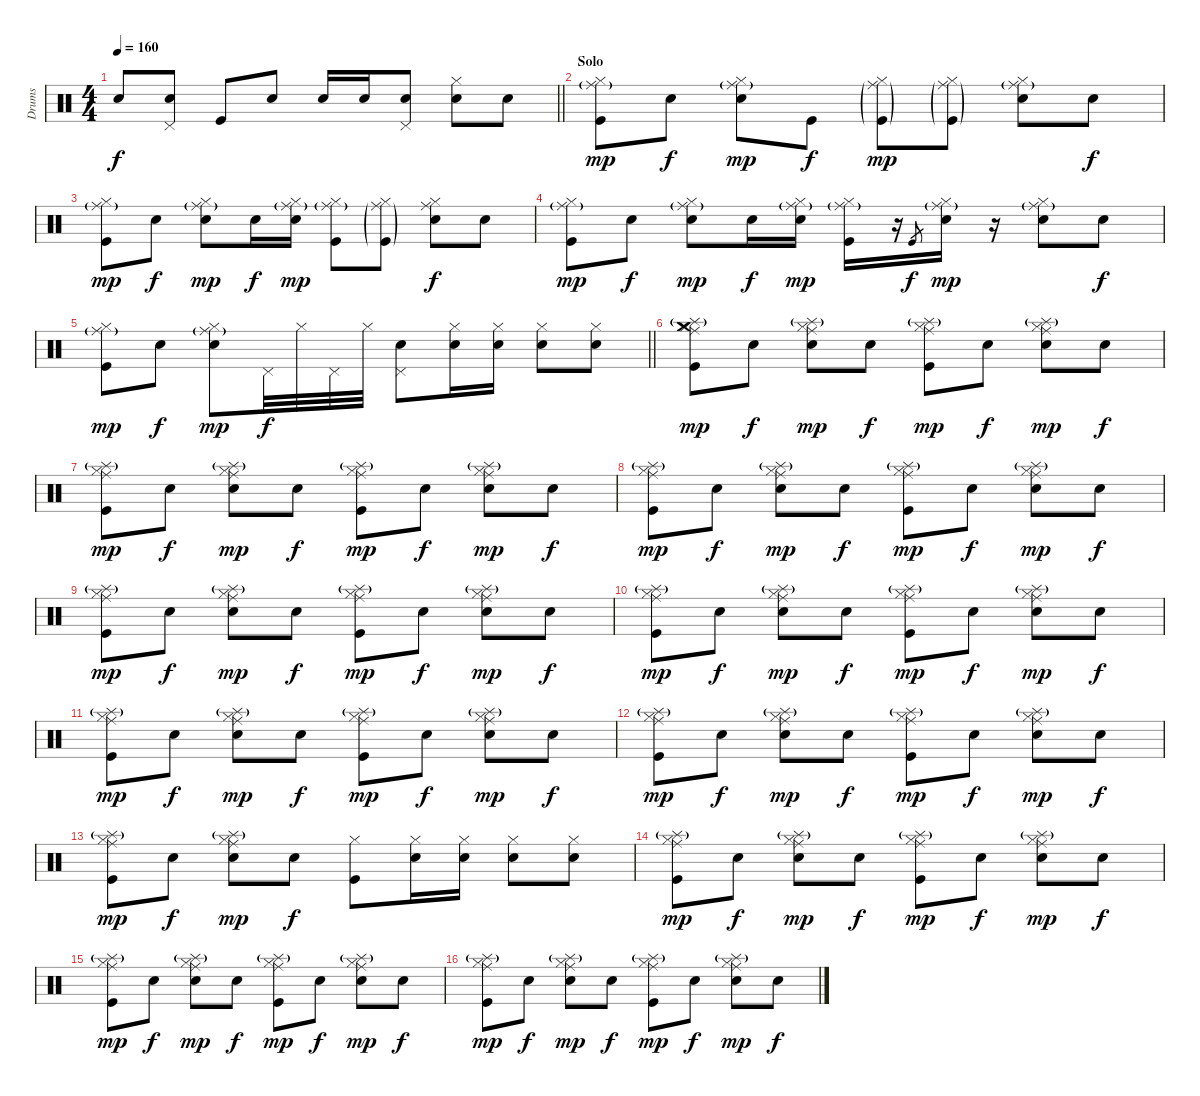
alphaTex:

\track ("Drums" "Drums") {instrument percussion}
\staff {score}
\articulation defaults
\ts (4 4)
\tempo 160
\clef neutral
\barLineRight lightlight
\ks c "Snare (hit)".8{dy f}
("Pedal Hi-Hat (hit)" "Electric Snare (hit)").8 "Kick (hit)".8 "Snare (hit)".8 "Electric Snare (hit)".16 "Electric Snare (hit)".16 ("Pedal Hi-Hat (hit)" "Electric Snare (hit)").8 ("Hi-Hat (closed)" "Electric Snare (hit)").8 "Snare (hit)".8 |
\section ("" "Solo")
("Hi-Hat (closed)" "Ride (middle)"{g} "Kick (hit)").8{dy mp} "Snare (hit)".8{dy f} ("Hi-Hat (closed)" "Ride (middle)"{g} "Electric Snare (hit)").8{dy mp} "Kick (hit)".8{dy f} ("Ride (middle)"{g} "Hi-Hat (closed)" "Kick (hit)"{g}).8{dy mp} ("Ride (middle)"{g} "Hi-Hat (closed)" "Kick (hit)"{g}).8 ("Ride (middle)"{g} "Hi-Hat (closed)" "Electric Snare (hit)").8 "Snare (hit)".8{dy f} |
("Hi-Hat (closed)" "Ride (middle)"{g} "Kick (hit)").8{dy mp} "Snare (hit)".8{dy f} ("Hi-Hat (closed)" "Ride (middle)"{g} "Electric Snare (hit)").8{dy mp} "Snare (hit)".16{dy f} ("Hi-Hat (closed)" "Ride (middle)"{g} "Electric Snare (hit)").16{dy mp} ("Hi-Hat (closed)" "Ride (middle)"{g} "Kick (hit)").8 ("Hi-Hat (closed)" "Ride (middle)"{g} "Kick (hit)"{g}).8 ("Hi-Hat (closed)" "Ride (middle)" "Electric Snare (hit)").8{dy f} "Snare (hit)".8 |
("Hi-Hat (closed)" "Ride (middle)"{g} "Kick (hit)").8{dy mp} "Snare (hit)".8{dy f} ("Hi-Hat (closed)" "Ride (middle)"{g} "Electric Snare (hit)").8{dy mp} "Snare (hit)".16{dy f} ("Hi-Hat (closed)" "Ride (middle)"{g} "Electric Snare (hit)").16{dy mp} ("Hi-Hat (closed)" "Ride (middle)"{g} "Kick (hit)").16 r.16 "Kick (hit)".8{gr dy f} ("Hi-Hat (closed)" "Ride (middle)"{g} "Electric Snare (hit)").16{dy mp} r.16 ("Hi-Hat (closed)" "Ride (middle)"{g} "Electric Snare (hit)").8 "Snare (hit)".8{dy f} |
\barLineRight lightlight
("Hi-Hat (closed)" "Ride (middle)"{g} "Kick (hit)").8{dy mp} "Snare (hit)".8{dy f} ("Hi-Hat (closed)" "Ride (middle)"{g} "Electric Snare (hit)").8{dy mp} "Pedal Hi-Hat (hit)".32{dy f} "Hi-Hat (closed)".32 "Pedal Hi-Hat (hit)".32 "Hi-Hat (closed)".32 ("Pedal Hi-Hat (hit)" "Snare (hit)").8 ("Hi-Hat (closed)" "Snare (hit)").16 ("Hi-Hat (closed)" "Electric Snare (hit)").16 ("Hi-Hat (closed)" "Electric Snare (hit)").8 ("Hi-Hat (closed)" "Electric Snare (hit)").8 |
\section ("" "")
("Crash medium (hit)" "Splash (hit)"{g} "Ride (middle)" "Hi-Hat (closed)" "Kick (hit)").8{dy mp} "Snare (hit)".8{dy f} ("Splash (hit)"{g} "Ride (middle)" "Hi-Hat (closed)" "Electric Snare (hit)").8{dy mp} "Snare (hit)".8{dy f} ("Splash (hit)"{g} "Ride (middle)" "Hi-Hat (closed)" "Kick (hit)").8{dy mp} "Snare (hit)".8{dy f} ("Splash (hit)"{g} "Ride (middle)" "Hi-Hat (closed)" "Electric Snare (hit)").8{dy mp} "Snare (hit)".8{dy f} |
("Splash (hit)"{g} "Ride (middle)" "Hi-Hat (closed)" "Kick (hit)").8{dy mp} "Snare (hit)".8{dy f} ("Splash (hit)"{g} "Ride (middle)" "Hi-Hat (closed)" "Electric Snare (hit)").8{dy mp} "Snare (hit)".8{dy f} ("Splash (hit)"{g} "Ride (middle)" "Hi-Hat (closed)" "Kick (hit)").8{dy mp} "Snare (hit)".8{dy f} ("Splash (hit)"{g} "Ride (middle)" "Hi-Hat (closed)" "Electric Snare (hit)").8{dy mp} "Snare (hit)".8{dy f} |
("Splash (hit)"{g} "Ride (middle)" "Hi-Hat (closed)" "Kick (hit)").8{dy mp} "Snare (hit)".8{dy f} ("Splash (hit)"{g} "Ride (middle)" "Hi-Hat (closed)" "Electric Snare (hit)").8{dy mp} "Snare (hit)".8{dy f} ("Splash (hit)"{g} "Ride (middle)" "Hi-Hat (closed)" "Kick (hit)").8{dy mp} "Snare (hit)".8{dy f} ("Splash (hit)"{g} "Ride (middle)" "Hi-Hat (closed)" "Electric Snare (hit)").8{dy mp} "Snare (hit)".8{dy f} |
("Splash (hit)"{g} "Ride (middle)" "Hi-Hat (closed)" "Kick (hit)").8{dy mp} "Snare (hit)".8{dy f} ("Splash (hit)"{g} "Ride (middle)" "Hi-Hat (closed)" "Electric Snare (hit)").8{dy mp} "Snare (hit)".8{dy f} ("Splash (hit)"{g} "Ride (middle)" "Hi-Hat (closed)" "Kick (hit)").8{dy mp} "Snare (hit)".8{dy f} ("Splash (hit)"{g} "Ride (middle)" "Hi-Hat (closed)" "Electric Snare (hit)").8{dy mp} "Snare (hit)".8{dy f} |
("Splash (hit)"{g} "Ride (middle)" "Hi-Hat (closed)" "Kick (hit)").8{dy mp} "Snare (hit)".8{dy f} ("Splash (hit)"{g} "Ride (middle)" "Hi-Hat (closed)" "Electric Snare (hit)").8{dy mp} "Snare (hit)".8{dy f} ("Splash (hit)"{g} "Ride (middle)" "Hi-Hat (closed)" "Kick (hit)").8{dy mp} "Snare (hit)".8{dy f} ("Splash (hit)"{g} "Ride (middle)" "Hi-Hat (closed)" "Electric Snare (hit)").8{dy mp} "Snare (hit)".8{dy f} |
("Splash (hit)"{g} "Ride (middle)" "Hi-Hat (closed)" "Kick (hit)").8{dy mp} "Snare (hit)".8{dy f} ("Splash (hit)"{g} "Ride (middle)" "Hi-Hat (closed)" "Electric Snare (hit)").8{dy mp} "Snare (hit)".8{dy f} ("Splash (hit)"{g} "Ride (middle)" "Hi-Hat (closed)" "Kick (hit)").8{dy mp} "Snare (hit)".8{dy f} ("Splash (hit)"{g} "Ride (middle)" "Hi-Hat (closed)" "Electric Snare (hit)").8{dy mp} "Snare (hit)".8{dy f} |
("Splash (hit)"{g} "Ride (middle)" "Hi-Hat (closed)" "Kick (hit)").8{dy mp} "Snare (hit)".8{dy f} ("Splash (hit)"{g} "Ride (middle)" "Hi-Hat (closed)" "Electric Snare (hit)").8{dy mp} "Snare (hit)".8{dy f} ("Splash (hit)"{g} "Ride (middle)" "Hi-Hat (closed)" "Kick (hit)").8{dy mp} "Snare (hit)".8{dy f} ("Splash (hit)"{g} "Ride (middle)" "Hi-Hat (closed)" "Electric Snare (hit)").8{dy mp} "Snare (hit)".8{dy f} |
("Splash (hit)"{g} "Ride (middle)" "Hi-Hat (closed)" "Kick (hit)").8{dy mp} "Snare (hit)".8{dy f} ("Splash (hit)"{g} "Ride (middle)" "Hi-Hat (closed)" "Electric Snare (hit)").8{dy mp} "Snare (hit)".8{dy f} ("Hi-Hat (closed)" "Kick (hit)").8 ("Hi-Hat (closed)" "Electric Snare (hit)").16 ("Hi-Hat (closed)" "Electric Snare (hit)").16 ("Hi-Hat (closed)" "Electric Snare (hit)").8 ("Hi-Hat (closed)" "Electric Snare (hit)").8 |
("Splash (hit)"{g} "Ride (middle)" "Hi-Hat (closed)" "Kick (hit)").8{dy mp} "Snare (hit)".8{dy f} ("Splash (hit)"{g} "Ride (middle)" "Hi-Hat (closed)" "Electric Snare (hit)").8{dy mp} "Snare (hit)".8{dy f} ("Splash (hit)"{g} "Ride (middle)" "Hi-Hat (closed)" "Kick (hit)").8{dy mp} "Snare (hit)".8{dy f} ("Splash (hit)"{g} "Ride (middle)" "Hi-Hat (closed)" "Electric Snare (hit)").8{dy mp} "Snare (hit)".8{dy f} |
("Splash (hit)"{g} "Ride (middle)" "Hi-Hat (closed)" "Kick (hit)").8{dy mp} "Snare (hit)".8{dy f} ("Splash (hit)"{g} "Ride (middle)" "Hi-Hat (closed)" "Electric Snare (hit)").8{dy mp} "Snare (hit)".8{dy f} ("Splash (hit)"{g} "Ride (middle)" "Hi-Hat (closed)" "Kick (hit)").8{dy mp} "Snare (hit)".8{dy f} ("Splash (hit)"{g} "Ride (middle)" "Hi-Hat (closed)" "Electric Snare (hit)").8{dy mp} "Snare (hit)".8{dy f} |
("Splash (hit)"{g} "Ride (middle)" "Hi-Hat (closed)" "Kick (hit)").8{dy mp} "Snare (hit)".8{dy f} ("Splash (hit)"{g} "Ride (middle)" "Hi-Hat (closed)" "Electric Snare (hit)").8{dy mp} "Snare (hit)".8{dy f} ("Splash (hit)"{g} "Ride (middle)" "Hi-Hat (closed)" "Kick (hit)").8{dy mp} "Snare (hit)".8{dy f} ("Splash (hit)"{g} "Ride (middle)" "Hi-Hat (closed)" "Electric Snare (hit)").8{dy mp} "Snare (hit)".8{dy f}
